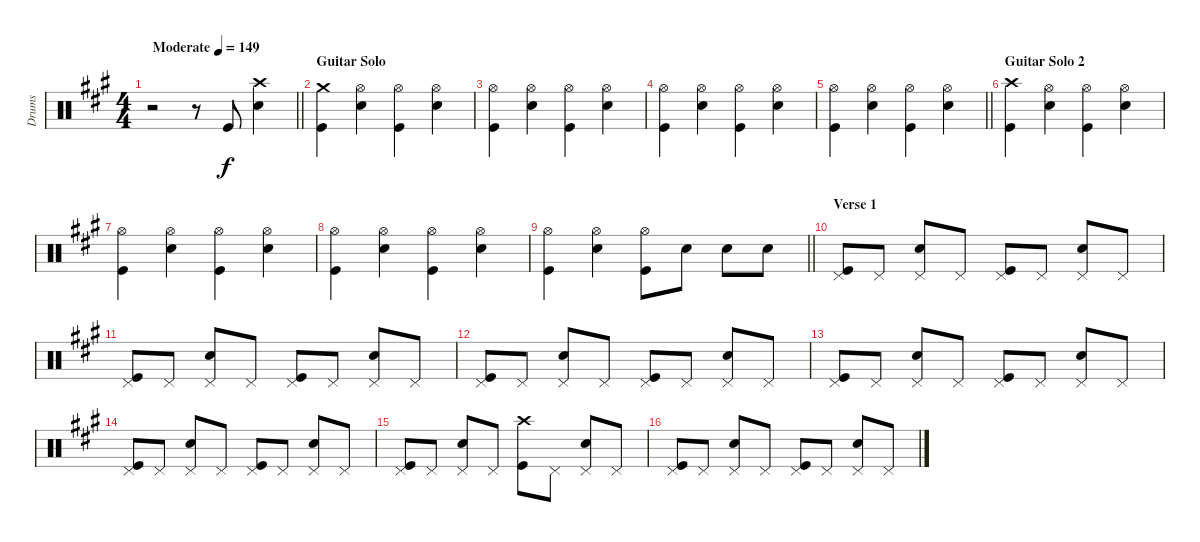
\track ("Drums" "Drums") {instrument percussion}
\staff {score}
\articulation defaults
\ts (4 4)
\tempo (149 "Moderate")
\clef neutral
\barLineRight lightlight
\ks f#minor
r.2{dy f} r.8 "Kick (hit)".8 ("Crash high (hit)" "Snare (hit) 2").4 |
\section ("" "Guitar Solo")
("Crash medium (hit)" "Kick (hit)").4 ("Hi-Hat (open)" "Snare (hit) 2").4 ("Hi-Hat (open)" "Kick (hit)").4 ("Hi-Hat (open)" "Snare (hit) 2").4 |
("Hi-Hat (open)" "Kick (hit)").4 ("Hi-Hat (open)" "Snare (hit) 2").4 ("Hi-Hat (open)" "Kick (hit)").4 ("Hi-Hat (open)" "Snare (hit) 2").4 |
("Hi-Hat (open)" "Kick (hit)").4 ("Hi-Hat (open)" "Snare (hit) 2").4 ("Hi-Hat (open)" "Kick (hit)").4 ("Hi-Hat (open)" "Snare (hit) 2").4 |
\barLineRight lightlight
("Hi-Hat (open)" "Kick (hit)").4 ("Hi-Hat (open)" "Snare (hit) 2").4 ("Hi-Hat (open)" "Kick (hit)").4 ("Hi-Hat (open)" "Snare (hit) 2").4 |
\section ("" "Guitar Solo 2")
("Crash high (hit)" "Kick (hit)").4 ("Hi-Hat (open)" "Snare (hit) 2").4 ("Hi-Hat (open)" "Kick (hit)").4 ("Hi-Hat (open)" "Snare (hit) 2").4 |
("Hi-Hat (open)" "Kick (hit)").4 ("Hi-Hat (open)" "Snare (hit) 2").4 ("Hi-Hat (open)" "Kick (hit)").4 ("Hi-Hat (open)" "Snare (hit) 2").4 |
("Hi-Hat (open)" "Kick (hit)").4 ("Hi-Hat (open)" "Snare (hit) 2").4 ("Hi-Hat (open)" "Kick (hit)").4 ("Hi-Hat (open)" "Snare (hit) 2").4 |
\barLineRight lightlight
("Hi-Hat (open)" "Kick (hit)").4 ("Hi-Hat (open)" "Snare (hit) 2").4 ("Hi-Hat (open)" "Kick (hit)").8 "Snare (hit) 2".8 "Snare (hit) 2".8 "Snare (hit) 2".8 |
\section ("" "Verse 1")
("Pedal Hi-Hat (hit)" "Kick (hit)").8 "Pedal Hi-Hat (hit)".8 ("Pedal Hi-Hat (hit)" "Snare (hit) 2").8 "Pedal Hi-Hat (hit)".8 ("Pedal Hi-Hat (hit)" "Kick (hit)").8 "Pedal Hi-Hat (hit)".8 ("Pedal Hi-Hat (hit)" "Snare (hit) 2").8 "Pedal Hi-Hat (hit)".8 |
("Pedal Hi-Hat (hit)" "Kick (hit)").8 "Pedal Hi-Hat (hit)".8 ("Pedal Hi-Hat (hit)" "Snare (hit) 2").8 "Pedal Hi-Hat (hit)".8 ("Pedal Hi-Hat (hit)" "Kick (hit)").8 "Pedal Hi-Hat (hit)".8 ("Pedal Hi-Hat (hit)" "Snare (hit) 2").8 "Pedal Hi-Hat (hit)".8 |
("Pedal Hi-Hat (hit)" "Kick (hit)").8 "Pedal Hi-Hat (hit)".8 ("Pedal Hi-Hat (hit)" "Snare (hit) 2").8 "Pedal Hi-Hat (hit)".8 ("Pedal Hi-Hat (hit)" "Kick (hit)").8 "Pedal Hi-Hat (hit)".8 ("Pedal Hi-Hat (hit)" "Snare (hit) 2").8 "Pedal Hi-Hat (hit)".8 |
("Pedal Hi-Hat (hit)" "Kick (hit)").8 "Pedal Hi-Hat (hit)".8 ("Pedal Hi-Hat (hit)" "Snare (hit) 2").8 "Pedal Hi-Hat (hit)".8 ("Pedal Hi-Hat (hit)" "Kick (hit)").8 "Pedal Hi-Hat (hit)".8 ("Pedal Hi-Hat (hit)" "Snare (hit) 2").8 "Pedal Hi-Hat (hit)".8 |
("Pedal Hi-Hat (hit)" "Kick (hit)").8 "Pedal Hi-Hat (hit)".8 ("Pedal Hi-Hat (hit)" "Snare (hit) 2").8 "Pedal Hi-Hat (hit)".8 ("Pedal Hi-Hat (hit)" "Kick (hit)").8 "Pedal Hi-Hat (hit)".8 ("Pedal Hi-Hat (hit)" "Snare (hit) 2").8 "Pedal Hi-Hat (hit)".8 |
("Pedal Hi-Hat (hit)" "Kick (hit)").8 "Pedal Hi-Hat (hit)".8 ("Pedal Hi-Hat (hit)" "Snare (hit) 2").8 "Pedal Hi-Hat (hit)".8 ("Crash high (hit)" "Kick (hit)").8 "Pedal Hi-Hat (hit)".8 ("Pedal Hi-Hat (hit)" "Snare (hit) 2").8 "Pedal Hi-Hat (hit)".8 |
("Pedal Hi-Hat (hit)" "Kick (hit)").8 "Pedal Hi-Hat (hit)".8 ("Pedal Hi-Hat (hit)" "Snare (hit) 2").8 "Pedal Hi-Hat (hit)".8 ("Pedal Hi-Hat (hit)" "Kick (hit)").8 "Pedal Hi-Hat (hit)".8 ("Pedal Hi-Hat (hit)" "Snare (hit) 2").8 "Pedal Hi-Hat (hit)".8
